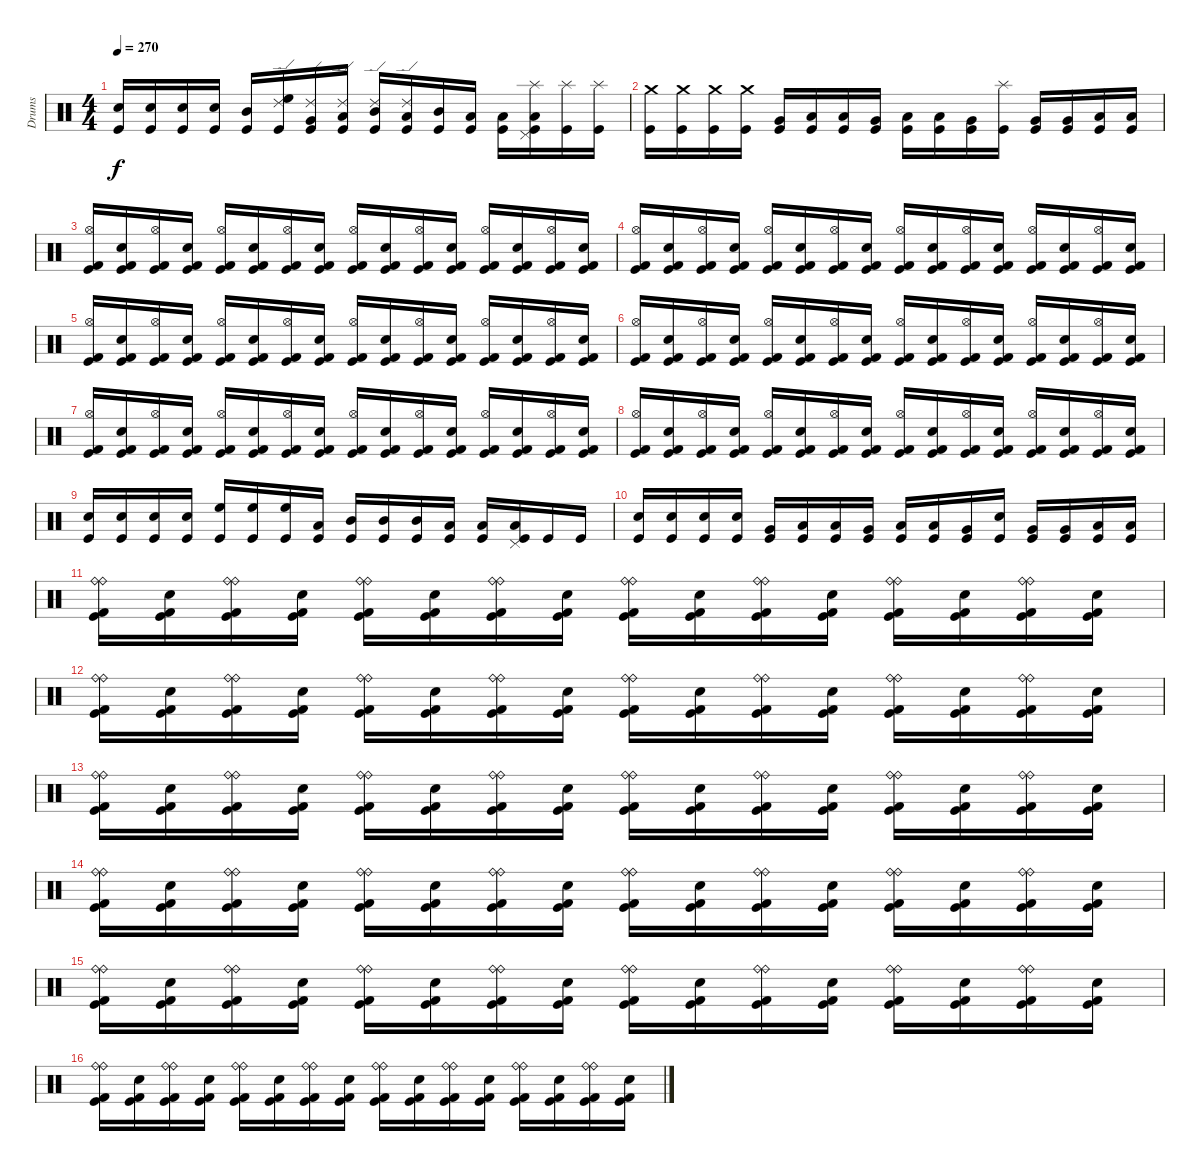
\track ("Drums" "Drums") {instrument percussion}
\staff {score}
\articulation defaults
\ts (4 4)
\tempo 270
\clef neutral
\ks c
("Electric Snare (hit)" "Kick (hit)").16{dy f} ("Electric Snare (hit)" "Kick (hit)").16 ("Electric Snare (hit)" "Kick (hit)").16 ("Electric Snare (hit)" "Kick (hit)").16 ("Mid Tom (hit)" "Kick (hit)").16 ("Ride (edge) 2" "High Floor Tom (hit)" "Kick (hit)").16 ("Ride (edge) 2" "Very Low Tom (hit)" "Kick (hit)").16 ("Ride (edge) 2" "Low Tom (hit)" "Kick (hit)").16 ("Ride (edge) 2" "Mid Tom (hit)" "Kick (hit)").16 ("Ride (edge) 2" "Low Floor Tom (hit)" "Kick (hit)").16 ("Mid Tom (hit)" "Kick (hit)").16 ("Low Tom (hit)" "Kick (hit)").16 ("Low Floor Tom (hit)" "Kick (hit)").16 ("Pedal Hi-Hat (hit)" "Low Floor Tom (hit)" "Kick (hit)" "Splash (hit)").16 ("Kick (hit)" "Splash (hit)").16 ("Kick (hit)" "Splash (hit)").16 |
("Crash medium (hit)" "Kick (hit)").16 ("Crash medium (hit)" "Kick (hit)").16 ("Crash medium (hit)" "Kick (hit)").16 ("Crash medium (hit)" "Kick (hit)").16 ("Very Low Tom (hit)" "Kick (hit)").16 ("Low Tom (hit)" "Kick (hit)").16 ("Low Floor Tom (hit)" "Kick (hit)").16 ("Very Low Tom (hit)" "Kick (hit)").16 ("Low Floor Tom (hit)" "Kick (hit)").16 ("Low Floor Tom (hit)" "Kick (hit)").16 ("Very Low Tom (hit)" "Kick (hit)").16 ("Splash (hit)" "Kick (hit)").16 ("Very Low Tom (hit)" "Kick (hit)").16 ("Very Low Tom (hit)" "Kick (hit)").16 ("Low Floor Tom (hit)" "Kick (hit)").16 ("Low Floor Tom (hit)" "Kick (hit)").16 |
("Hi-Hat (open)" "Kick (hit)" "Kick (hit) 2").16 ("Electric Snare (hit)" "Kick (hit)" "Kick (hit) 2").16 ("Hi-Hat (open)" "Kick (hit)" "Kick (hit) 2").16 ("Electric Snare (hit)" "Kick (hit)" "Kick (hit) 2").16 ("Hi-Hat (open)" "Kick (hit)" "Kick (hit) 2").16 ("Electric Snare (hit)" "Kick (hit)" "Kick (hit) 2").16 ("Hi-Hat (open)" "Kick (hit)" "Kick (hit) 2").16 ("Electric Snare (hit)" "Kick (hit)" "Kick (hit) 2").16 ("Hi-Hat (open)" "Kick (hit)" "Kick (hit) 2").16 ("Electric Snare (hit)" "Kick (hit)" "Kick (hit) 2").16 ("Hi-Hat (open)" "Kick (hit)" "Kick (hit) 2").16 ("Electric Snare (hit)" "Kick (hit)" "Kick (hit) 2").16 ("Hi-Hat (open)" "Kick (hit)" "Kick (hit) 2").16 ("Electric Snare (hit)" "Kick (hit)" "Kick (hit) 2").16 ("Hi-Hat (open)" "Kick (hit)" "Kick (hit) 2").16 ("Electric Snare (hit)" "Kick (hit)" "Kick (hit) 2").16 |
("Hi-Hat (open)" "Kick (hit)" "Kick (hit) 2").16 ("Electric Snare (hit)" "Kick (hit)" "Kick (hit) 2").16 ("Hi-Hat (open)" "Kick (hit)" "Kick (hit) 2").16 ("Electric Snare (hit)" "Kick (hit)" "Kick (hit) 2").16 ("Hi-Hat (open)" "Kick (hit)" "Kick (hit) 2").16 ("Electric Snare (hit)" "Kick (hit)" "Kick (hit) 2").16 ("Hi-Hat (open)" "Kick (hit)" "Kick (hit) 2").16 ("Electric Snare (hit)" "Kick (hit)" "Kick (hit) 2").16 ("Hi-Hat (open)" "Kick (hit)" "Kick (hit) 2").16 ("Electric Snare (hit)" "Kick (hit)" "Kick (hit) 2").16 ("Hi-Hat (open)" "Kick (hit)" "Kick (hit) 2").16 ("Electric Snare (hit)" "Kick (hit)" "Kick (hit) 2").16 ("Hi-Hat (open)" "Kick (hit)" "Kick (hit) 2").16 ("Electric Snare (hit)" "Kick (hit)" "Kick (hit) 2").16 ("Hi-Hat (open)" "Kick (hit)" "Kick (hit) 2").16 ("Electric Snare (hit)" "Kick (hit)" "Kick (hit) 2").16 |
("Hi-Hat (open)" "Kick (hit)" "Kick (hit) 2").16 ("Electric Snare (hit)" "Kick (hit)" "Kick (hit) 2").16 ("Hi-Hat (open)" "Kick (hit)" "Kick (hit) 2").16 ("Electric Snare (hit)" "Kick (hit)" "Kick (hit) 2").16 ("Hi-Hat (open)" "Kick (hit)" "Kick (hit) 2").16 ("Electric Snare (hit)" "Kick (hit)" "Kick (hit) 2").16 ("Hi-Hat (open)" "Kick (hit)" "Kick (hit) 2").16 ("Electric Snare (hit)" "Kick (hit)" "Kick (hit) 2").16 ("Hi-Hat (open)" "Kick (hit)" "Kick (hit) 2").16 ("Electric Snare (hit)" "Kick (hit)" "Kick (hit) 2").16 ("Hi-Hat (open)" "Kick (hit)" "Kick (hit) 2").16 ("Electric Snare (hit)" "Kick (hit)" "Kick (hit) 2").16 ("Hi-Hat (open)" "Kick (hit)" "Kick (hit) 2").16 ("Electric Snare (hit)" "Kick (hit)" "Kick (hit) 2").16 ("Hi-Hat (open)" "Kick (hit)" "Kick (hit) 2").16 ("Electric Snare (hit)" "Kick (hit)" "Kick (hit) 2").16 |
("Hi-Hat (open)" "Kick (hit)" "Kick (hit) 2").16 ("Electric Snare (hit)" "Kick (hit)" "Kick (hit) 2").16 ("Hi-Hat (open)" "Kick (hit)" "Kick (hit) 2").16 ("Electric Snare (hit)" "Kick (hit)" "Kick (hit) 2").16 ("Hi-Hat (open)" "Kick (hit)" "Kick (hit) 2").16 ("Electric Snare (hit)" "Kick (hit)" "Kick (hit) 2").16 ("Hi-Hat (open)" "Kick (hit)" "Kick (hit) 2").16 ("Electric Snare (hit)" "Kick (hit)" "Kick (hit) 2").16 ("Hi-Hat (open)" "Kick (hit)" "Kick (hit) 2").16 ("Electric Snare (hit)" "Kick (hit)" "Kick (hit) 2").16 ("Hi-Hat (open)" "Kick (hit)" "Kick (hit) 2").16 ("Electric Snare (hit)" "Kick (hit)" "Kick (hit) 2").16 ("Hi-Hat (open)" "Kick (hit)" "Kick (hit) 2").16 ("Electric Snare (hit)" "Kick (hit)" "Kick (hit) 2").16 ("Hi-Hat (open)" "Kick (hit)" "Kick (hit) 2").16 ("Electric Snare (hit)" "Kick (hit)" "Kick (hit) 2").16 |
("Hi-Hat (open)" "Kick (hit)" "Kick (hit) 2").16 ("Electric Snare (hit)" "Kick (hit)" "Kick (hit) 2").16 ("Hi-Hat (open)" "Kick (hit)" "Kick (hit) 2").16 ("Electric Snare (hit)" "Kick (hit)" "Kick (hit) 2").16 ("Hi-Hat (open)" "Kick (hit)" "Kick (hit) 2").16 ("Electric Snare (hit)" "Kick (hit)" "Kick (hit) 2").16 ("Hi-Hat (open)" "Kick (hit)" "Kick (hit) 2").16 ("Electric Snare (hit)" "Kick (hit)" "Kick (hit) 2").16 ("Hi-Hat (open)" "Kick (hit)" "Kick (hit) 2").16 ("Electric Snare (hit)" "Kick (hit)" "Kick (hit) 2").16 ("Hi-Hat (open)" "Kick (hit)" "Kick (hit) 2").16 ("Electric Snare (hit)" "Kick (hit)" "Kick (hit) 2").16 ("Hi-Hat (open)" "Kick (hit)" "Kick (hit) 2").16 ("Electric Snare (hit)" "Kick (hit)" "Kick (hit) 2").16 ("Hi-Hat (open)" "Kick (hit)" "Kick (hit) 2").16 ("Electric Snare (hit)" "Kick (hit)" "Kick (hit) 2").16 |
("Hi-Hat (open)" "Kick (hit)" "Kick (hit) 2").16 ("Electric Snare (hit)" "Kick (hit)" "Kick (hit) 2").16 ("Hi-Hat (open)" "Kick (hit)" "Kick (hit) 2").16 ("Electric Snare (hit)" "Kick (hit)" "Kick (hit) 2").16 ("Hi-Hat (open)" "Kick (hit)" "Kick (hit) 2").16 ("Electric Snare (hit)" "Kick (hit)" "Kick (hit) 2").16 ("Hi-Hat (open)" "Kick (hit)" "Kick (hit) 2").16 ("Electric Snare (hit)" "Kick (hit)" "Kick (hit) 2").16 ("Hi-Hat (open)" "Kick (hit)" "Kick (hit) 2").16 ("Electric Snare (hit)" "Kick (hit)" "Kick (hit) 2").16 ("Hi-Hat (open)" "Kick (hit)" "Kick (hit) 2").16 ("Electric Snare (hit)" "Kick (hit)" "Kick (hit) 2").16 ("Hi-Hat (open)" "Kick (hit)" "Kick (hit) 2").16 ("Electric Snare (hit)" "Kick (hit)" "Kick (hit) 2").16 ("Hi-Hat (open)" "Kick (hit)" "Kick (hit) 2").16 ("Electric Snare (hit)" "Kick (hit)" "Kick (hit) 2").16 |
("Electric Snare (hit)" "Kick (hit)").16 ("Electric Snare (hit)" "Kick (hit)").16 ("Electric Snare (hit)" "Kick (hit)").16 ("Electric Snare (hit)" "Kick (hit)").16 ("High Floor Tom (hit)" "Kick (hit)").16 ("High Floor Tom (hit)" "Kick (hit)").16 ("High Floor Tom (hit)" "Kick (hit)").16 ("Low Tom (hit)" "Kick (hit)").16 ("Mid Tom (hit)" "Kick (hit)").16 ("Mid Tom (hit)" "Kick (hit)").16 ("Mid Tom (hit)" "Kick (hit)").16 ("Low Tom (hit)" "Kick (hit)").16 ("Low Tom (hit)" "Kick (hit)").16 ("Pedal Hi-Hat (hit)" "Low Tom (hit)" "Kick (hit)").16 "Kick (hit)".16 "Kick (hit)".16 |
("Electric Snare (hit)" "Kick (hit)").16 ("Electric Snare (hit)" "Kick (hit)").16 ("Electric Snare (hit)" "Kick (hit)").16 ("Electric Snare (hit)" "Kick (hit)").16 ("Very Low Tom (hit)" "Kick (hit)").16 ("Low Tom (hit)" "Kick (hit)").16 ("Low Floor Tom (hit)" "Kick (hit)").16 ("Very Low Tom (hit)" "Kick (hit)").16 ("Low Floor Tom (hit)" "Kick (hit)").16 ("Low Floor Tom (hit)" "Kick (hit)").16 ("Very Low Tom (hit)" "Kick (hit)").16 ("Electric Snare (hit)" "Kick (hit)").16 ("Very Low Tom (hit)" "Kick (hit)").16 ("Very Low Tom (hit)" "Kick (hit)").16 ("Low Floor Tom (hit)" "Kick (hit)").16 ("Low Floor Tom (hit)" "Kick (hit)").16 |
("Ride (bell)" "Ride (bell)" "Kick (hit)" "Kick (hit) 2").16 ("Electric Snare (hit)" "Kick (hit)" "Kick (hit) 2").16 ("Ride (bell)" "Ride (bell)" "Kick (hit)" "Kick (hit) 2").16 ("Electric Snare (hit)" "Kick (hit)" "Kick (hit) 2").16 ("Ride (bell)" "Ride (bell)" "Kick (hit)" "Kick (hit) 2").16 ("Electric Snare (hit)" "Kick (hit)" "Kick (hit) 2").16 ("Ride (bell)" "Ride (bell)" "Kick (hit)" "Kick (hit) 2").16 ("Electric Snare (hit)" "Kick (hit)" "Kick (hit) 2").16 ("Ride (bell)" "Ride (bell)" "Kick (hit)" "Kick (hit) 2").16 ("Electric Snare (hit)" "Kick (hit)" "Kick (hit) 2").16 ("Ride (bell)" "Ride (bell)" "Kick (hit)" "Kick (hit) 2").16 ("Electric Snare (hit)" "Kick (hit)" "Kick (hit) 2").16 ("Ride (bell)" "Ride (bell)" "Kick (hit)" "Kick (hit) 2").16 ("Electric Snare (hit)" "Kick (hit)" "Kick (hit) 2").16 ("Ride (bell)" "Ride (bell)" "Kick (hit)" "Kick (hit) 2").16 ("Electric Snare (hit)" "Kick (hit)" "Kick (hit) 2").16 |
("Ride (bell)" "Ride (bell)" "Kick (hit)" "Kick (hit) 2").16 ("Electric Snare (hit)" "Kick (hit)" "Kick (hit) 2").16 ("Ride (bell)" "Ride (bell)" "Kick (hit)" "Kick (hit) 2").16 ("Electric Snare (hit)" "Kick (hit)" "Kick (hit) 2").16 ("Ride (bell)" "Ride (bell)" "Kick (hit)" "Kick (hit) 2").16 ("Electric Snare (hit)" "Kick (hit)" "Kick (hit) 2").16 ("Ride (bell)" "Ride (bell)" "Kick (hit)" "Kick (hit) 2").16 ("Electric Snare (hit)" "Kick (hit)" "Kick (hit) 2").16 ("Ride (bell)" "Ride (bell)" "Kick (hit)" "Kick (hit) 2").16 ("Electric Snare (hit)" "Kick (hit)" "Kick (hit) 2").16 ("Ride (bell)" "Ride (bell)" "Kick (hit)" "Kick (hit) 2").16 ("Electric Snare (hit)" "Kick (hit)" "Kick (hit) 2").16 ("Ride (bell)" "Ride (bell)" "Kick (hit)" "Kick (hit) 2").16 ("Electric Snare (hit)" "Kick (hit)" "Kick (hit) 2").16 ("Ride (bell)" "Ride (bell)" "Kick (hit)" "Kick (hit) 2").16 ("Electric Snare (hit)" "Kick (hit)" "Kick (hit) 2").16 |
("Ride (bell)" "Ride (bell)" "Kick (hit)" "Kick (hit) 2").16 ("Electric Snare (hit)" "Kick (hit)" "Kick (hit) 2").16 ("Ride (bell)" "Ride (bell)" "Kick (hit)" "Kick (hit) 2").16 ("Electric Snare (hit)" "Kick (hit)" "Kick (hit) 2").16 ("Ride (bell)" "Ride (bell)" "Kick (hit)" "Kick (hit) 2").16 ("Electric Snare (hit)" "Kick (hit)" "Kick (hit) 2").16 ("Ride (bell)" "Ride (bell)" "Kick (hit)" "Kick (hit) 2").16 ("Electric Snare (hit)" "Kick (hit)" "Kick (hit) 2").16 ("Ride (bell)" "Ride (bell)" "Kick (hit)" "Kick (hit) 2").16 ("Electric Snare (hit)" "Kick (hit)" "Kick (hit) 2").16 ("Ride (bell)" "Ride (bell)" "Kick (hit)" "Kick (hit) 2").16 ("Electric Snare (hit)" "Kick (hit)" "Kick (hit) 2").16 ("Ride (bell)" "Ride (bell)" "Kick (hit)" "Kick (hit) 2").16 ("Electric Snare (hit)" "Kick (hit)" "Kick (hit) 2").16 ("Ride (bell)" "Ride (bell)" "Kick (hit)" "Kick (hit) 2").16 ("Electric Snare (hit)" "Kick (hit)" "Kick (hit) 2").16 |
("Ride (bell)" "Ride (bell)" "Kick (hit)" "Kick (hit) 2").16 ("Electric Snare (hit)" "Kick (hit)" "Kick (hit) 2").16 ("Ride (bell)" "Ride (bell)" "Kick (hit)" "Kick (hit) 2").16 ("Electric Snare (hit)" "Kick (hit)" "Kick (hit) 2").16 ("Ride (bell)" "Ride (bell)" "Kick (hit)" "Kick (hit) 2").16 ("Electric Snare (hit)" "Kick (hit)" "Kick (hit) 2").16 ("Ride (bell)" "Ride (bell)" "Kick (hit)" "Kick (hit) 2").16 ("Electric Snare (hit)" "Kick (hit)" "Kick (hit) 2").16 ("Ride (bell)" "Ride (bell)" "Kick (hit)" "Kick (hit) 2").16 ("Electric Snare (hit)" "Kick (hit)" "Kick (hit) 2").16 ("Ride (bell)" "Ride (bell)" "Kick (hit)" "Kick (hit) 2").16 ("Electric Snare (hit)" "Kick (hit)" "Kick (hit) 2").16 ("Ride (bell)" "Ride (bell)" "Kick (hit)" "Kick (hit) 2").16 ("Electric Snare (hit)" "Kick (hit)" "Kick (hit) 2").16 ("Ride (bell)" "Ride (bell)" "Kick (hit)" "Kick (hit) 2").16 ("Electric Snare (hit)" "Kick (hit)" "Kick (hit) 2").16 |
("Ride (bell)" "Ride (bell)" "Kick (hit)" "Kick (hit) 2").16 ("Electric Snare (hit)" "Kick (hit)" "Kick (hit) 2").16 ("Ride (bell)" "Ride (bell)" "Kick (hit)" "Kick (hit) 2").16 ("Electric Snare (hit)" "Kick (hit)" "Kick (hit) 2").16 ("Ride (bell)" "Ride (bell)" "Kick (hit)" "Kick (hit) 2").16 ("Electric Snare (hit)" "Kick (hit)" "Kick (hit) 2").16 ("Ride (bell)" "Ride (bell)" "Kick (hit)" "Kick (hit) 2").16 ("Electric Snare (hit)" "Kick (hit)" "Kick (hit) 2").16 ("Ride (bell)" "Ride (bell)" "Kick (hit)" "Kick (hit) 2").16 ("Electric Snare (hit)" "Kick (hit)" "Kick (hit) 2").16 ("Ride (bell)" "Ride (bell)" "Kick (hit)" "Kick (hit) 2").16 ("Electric Snare (hit)" "Kick (hit)" "Kick (hit) 2").16 ("Ride (bell)" "Ride (bell)" "Kick (hit)" "Kick (hit) 2").16 ("Electric Snare (hit)" "Kick (hit)" "Kick (hit) 2").16 ("Ride (bell)" "Ride (bell)" "Kick (hit)" "Kick (hit) 2").16 ("Electric Snare (hit)" "Kick (hit)" "Kick (hit) 2").16 |
("Ride (bell)" "Ride (bell)" "Kick (hit)" "Kick (hit) 2").16 ("Electric Snare (hit)" "Kick (hit)" "Kick (hit) 2").16 ("Ride (bell)" "Ride (bell)" "Kick (hit)" "Kick (hit) 2").16 ("Electric Snare (hit)" "Kick (hit)" "Kick (hit) 2").16 ("Ride (bell)" "Ride (bell)" "Kick (hit)" "Kick (hit) 2").16 ("Electric Snare (hit)" "Kick (hit)" "Kick (hit) 2").16 ("Ride (bell)" "Ride (bell)" "Kick (hit)" "Kick (hit) 2").16 ("Electric Snare (hit)" "Kick (hit)" "Kick (hit) 2").16 ("Ride (bell)" "Ride (bell)" "Kick (hit)" "Kick (hit) 2").16 ("Electric Snare (hit)" "Kick (hit)" "Kick (hit) 2").16 ("Ride (bell)" "Ride (bell)" "Kick (hit)" "Kick (hit) 2").16 ("Electric Snare (hit)" "Kick (hit)" "Kick (hit) 2").16 ("Ride (bell)" "Ride (bell)" "Kick (hit)" "Kick (hit) 2").16 ("Electric Snare (hit)" "Kick (hit)" "Kick (hit) 2").16 ("Ride (bell)" "Ride (bell)" "Kick (hit)" "Kick (hit) 2").16 ("Electric Snare (hit)" "Kick (hit)" "Kick (hit) 2").16
